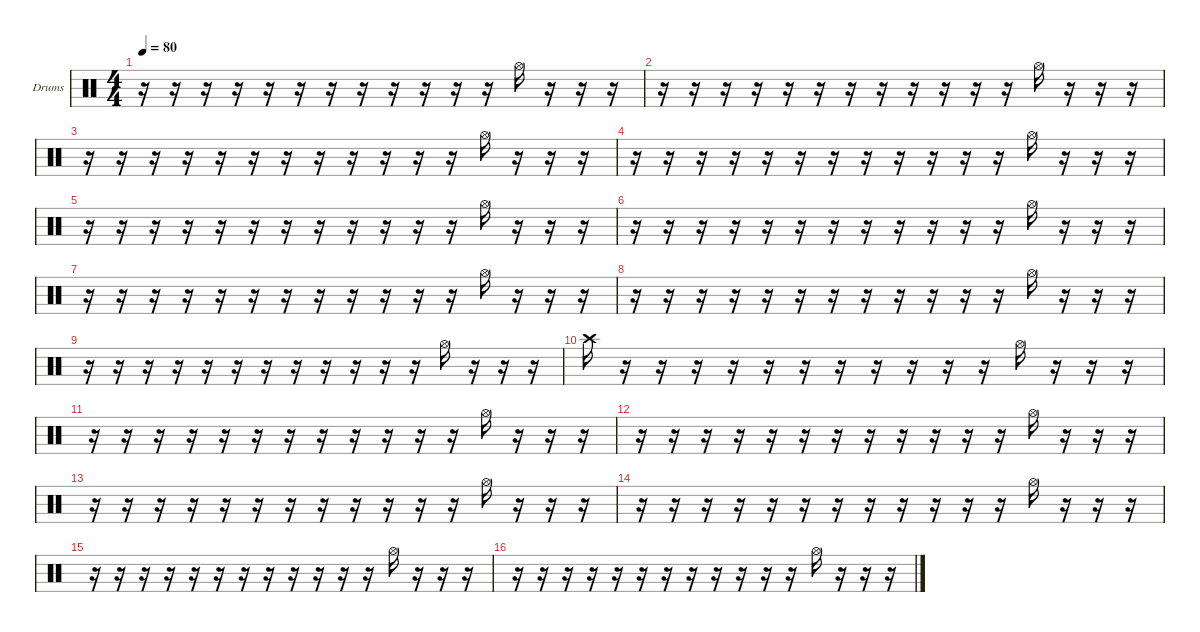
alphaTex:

\hideDynamics
\bracketExtendMode nobrackets
\firstSystemTrackNameOrientation horizontal
\otherSystemsTrackNameOrientation horizontal
\track ("Drumkit" "Drums") {instrument percussion}
\staff {score}
\articulation defaults
\ts (4 4)
\tempo 80
\clef neutral
\ks c
r.16{dy f} r.16 r.16 r.16 r.16 r.16 r.16 r.16 r.16 r.16 r.16 r.16 "Hi-Hat (open)".16 r.16 r.16 r.16 |
r.16 r.16 r.16 r.16 r.16 r.16 r.16 r.16 r.16 r.16 r.16 r.16 "Hi-Hat (open)".16 r.16 r.16 r.16 |
r.16 r.16 r.16 r.16 r.16 r.16 r.16 r.16 r.16 r.16 r.16 r.16 "Hi-Hat (open)".16 r.16 r.16 r.16 |
r.16 r.16 r.16 r.16 r.16 r.16 r.16 r.16 r.16 r.16 r.16 r.16 "Hi-Hat (open)".16 r.16 r.16 r.16 |
r.16 r.16 r.16 r.16 r.16 r.16 r.16 r.16 r.16 r.16 r.16 r.16 "Hi-Hat (open)".16 r.16 r.16 r.16 |
r.16 r.16 r.16 r.16 r.16 r.16 r.16 r.16 r.16 r.16 r.16 r.16 "Hi-Hat (open)".16 r.16 r.16 r.16 |
r.16 r.16 r.16 r.16 r.16 r.16 r.16 r.16 r.16 r.16 r.16 r.16 "Hi-Hat (open)".16 r.16 r.16 r.16 |
r.16 r.16 r.16 r.16 r.16 r.16 r.16 r.16 r.16 r.16 r.16 r.16 "Hi-Hat (open)".16 r.16 r.16 r.16 |
r.16 r.16 r.16 r.16 r.16 r.16 r.16 r.16 r.16 r.16 r.16 r.16 "Hi-Hat (open)".16 r.16 r.16 r.16 |
"Crash high (hit)".16 r.16 r.16 r.16 r.16 r.16 r.16 r.16 r.16 r.16 r.16 r.16 "Hi-Hat (open)".16 r.16 r.16 r.16 |
r.16 r.16 r.16 r.16 r.16 r.16 r.16 r.16 r.16 r.16 r.16 r.16 "Hi-Hat (open)".16 r.16 r.16 r.16 |
r.16 r.16 r.16 r.16 r.16 r.16 r.16 r.16 r.16 r.16 r.16 r.16 "Hi-Hat (open)".16 r.16 r.16 r.16 |
r.16 r.16 r.16 r.16 r.16 r.16 r.16 r.16 r.16 r.16 r.16 r.16 "Hi-Hat (open)".16 r.16 r.16 r.16 |
r.16 r.16 r.16 r.16 r.16 r.16 r.16 r.16 r.16 r.16 r.16 r.16 "Hi-Hat (open)".16 r.16 r.16 r.16 |
r.16 r.16 r.16 r.16 r.16 r.16 r.16 r.16 r.16 r.16 r.16 r.16 "Hi-Hat (open)".16 r.16 r.16 r.16 |
r.16 r.16 r.16 r.16 r.16 r.16 r.16 r.16 r.16 r.16 r.16 r.16 "Hi-Hat (open)".16 r.16 r.16 r.16
